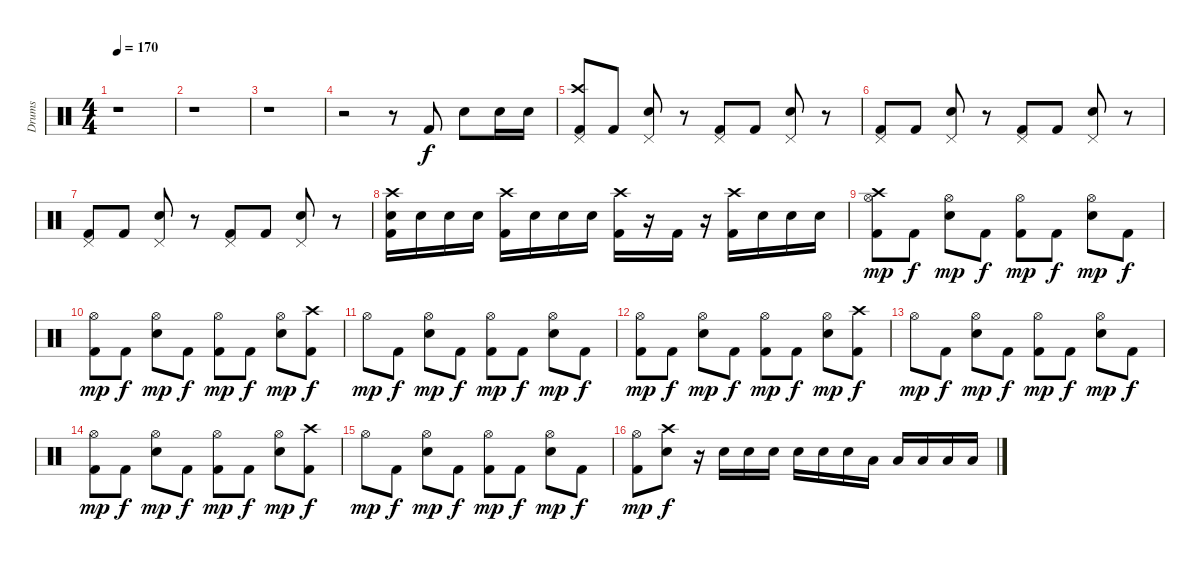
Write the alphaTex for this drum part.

\track ("Drums" "Drums") {instrument percussion}
\staff {score}
\articulation defaults
\ts (4 4)
\tempo 170
\clef neutral
\ks c
r.1{dy f} |
r.1 |
r.1 |
r.2 r.8 "Kick (hit) 2".8 "Electric Snare (hit)".8 "Electric Snare (hit)".16 "Electric Snare (hit)".16 |
("Crash high (hit)" "Pedal Hi-Hat (hit)" "Kick (hit) 2").8 "Kick (hit) 2".8 ("Pedal Hi-Hat (hit)" "Electric Snare (hit)").8 r.8 ("Pedal Hi-Hat (hit)" "Kick (hit) 2").8 "Kick (hit) 2".8 ("Pedal Hi-Hat (hit)" "Electric Snare (hit)").8 r.8 |
("Pedal Hi-Hat (hit)" "Kick (hit) 2").8 "Kick (hit) 2".8 ("Pedal Hi-Hat (hit)" "Electric Snare (hit)").8 r.8 ("Pedal Hi-Hat (hit)" "Kick (hit) 2").8 "Kick (hit) 2".8 ("Pedal Hi-Hat (hit)" "Electric Snare (hit)").8 r.8 |
("Pedal Hi-Hat (hit)" "Kick (hit) 2").8 "Kick (hit) 2".8 ("Pedal Hi-Hat (hit)" "Electric Snare (hit)").8 r.8 ("Pedal Hi-Hat (hit)" "Kick (hit) 2").8 "Kick (hit) 2".8 ("Pedal Hi-Hat (hit)" "Electric Snare (hit)").8 r.8 |
("Crash high (hit)" "Electric Snare (hit)" "Kick (hit) 2").16 "Electric Snare (hit)".16 "Electric Snare (hit)".16 "Electric Snare (hit)".16 ("Crash high (hit)" "Kick (hit) 2").16 "Electric Snare (hit)".16 "Electric Snare (hit)".16 "Electric Snare (hit)".16 ("Crash high (hit)" "Kick (hit) 2").16 r.16 "Kick (hit) 2".16 r.16 ("Crash high (hit)" "Kick (hit) 2").16 "Electric Snare (hit)".16 "Electric Snare (hit)".16 "Electric Snare (hit)".16 |
("Hi-Hat (open)" "Crash high (hit)" "Kick (hit) 2").8{dy mp} "Kick (hit) 2".8{dy f} ("Hi-Hat (open)" "Electric Snare (hit)").8{dy mp} "Kick (hit) 2".8{dy f} ("Hi-Hat (open)" "Kick (hit) 2").8{dy mp} "Kick (hit) 2".8{dy f} ("Hi-Hat (open)" "Electric Snare (hit)").8{dy mp} "Kick (hit) 2".8{dy f} |
("Hi-Hat (open)" "Kick (hit) 2").8{dy mp} "Kick (hit) 2".8{dy f} ("Hi-Hat (open)" "Electric Snare (hit)").8{dy mp} "Kick (hit) 2".8{dy f} ("Hi-Hat (open)" "Kick (hit) 2").8{dy mp} "Kick (hit) 2".8{dy f} ("Hi-Hat (open)" "Electric Snare (hit)").8{dy mp} ("Crash high (hit)" "Kick (hit) 2").8{dy f} |
"Hi-Hat (open)".8{dy mp} "Kick (hit) 2".8{dy f} ("Hi-Hat (open)" "Electric Snare (hit)").8{dy mp} "Kick (hit) 2".8{dy f} ("Hi-Hat (open)" "Kick (hit) 2").8{dy mp} "Kick (hit) 2".8{dy f} ("Hi-Hat (open)" "Electric Snare (hit)").8{dy mp} "Kick (hit) 2".8{dy f} |
("Hi-Hat (open)" "Kick (hit) 2").8{dy mp} "Kick (hit) 2".8{dy f} ("Hi-Hat (open)" "Electric Snare (hit)").8{dy mp} "Kick (hit) 2".8{dy f} ("Hi-Hat (open)" "Kick (hit) 2").8{dy mp} "Kick (hit) 2".8{dy f} ("Hi-Hat (open)" "Electric Snare (hit)").8{dy mp} ("Crash high (hit)" "Kick (hit) 2").8{dy f} |
"Hi-Hat (open)".8{dy mp} "Kick (hit) 2".8{dy f} ("Hi-Hat (open)" "Electric Snare (hit)").8{dy mp} "Kick (hit) 2".8{dy f} ("Hi-Hat (open)" "Kick (hit) 2").8{dy mp} "Kick (hit) 2".8{dy f} ("Hi-Hat (open)" "Electric Snare (hit)").8{dy mp} "Kick (hit) 2".8{dy f} |
("Hi-Hat (open)" "Kick (hit) 2").8{dy mp} "Kick (hit) 2".8{dy f} ("Hi-Hat (open)" "Electric Snare (hit)").8{dy mp} "Kick (hit) 2".8{dy f} ("Hi-Hat (open)" "Kick (hit) 2").8{dy mp} "Kick (hit) 2".8{dy f} ("Hi-Hat (open)" "Electric Snare (hit)").8{dy mp} ("Crash high (hit)" "Kick (hit) 2").8{dy f} |
"Hi-Hat (open)".8{dy mp} "Kick (hit) 2".8{dy f} ("Hi-Hat (open)" "Electric Snare (hit)").8{dy mp} "Kick (hit) 2".8{dy f} ("Hi-Hat (open)" "Kick (hit) 2").8{dy mp} "Kick (hit) 2".8{dy f} ("Hi-Hat (open)" "Electric Snare (hit)").8{dy mp} "Kick (hit) 2".8{dy f} |
("Hi-Hat (open)" "Kick (hit) 2").8{dy mp} ("Crash high (hit)" "Snare (hit) 2").8{dy f} r.16 "Electric Snare (hit)".16 "Electric Snare (hit)".16 "Electric Snare (hit)".16 "Electric Snare (hit)".16 "Electric Snare (hit)".16 "Electric Snare (hit)".16 "Low Floor Tom (hit)".16 "Low Floor Tom (hit)".16 "Low Floor Tom (hit)".16 "Low Floor Tom (hit)".16 "Low Floor Tom (hit)".16
